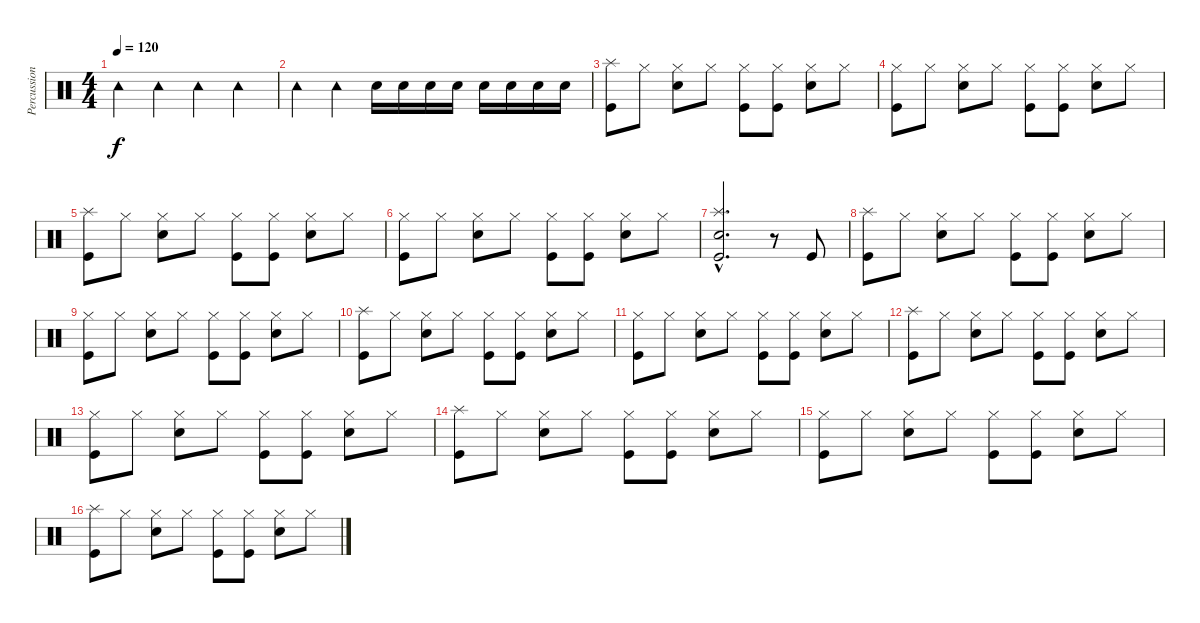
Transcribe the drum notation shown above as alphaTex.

\track ("Percussion" "Percussion") {instrument percussion}
\staff {score}
\articulation defaults
\ts (4 4)
\tempo 120
\clef neutral
\ks c "Tambourine (hit)".4{dy f volume 5} "Tambourine (hit)".4 "Tambourine (hit)".4 "Tambourine (hit)".4
|
"Tambourine (hit)".4 "Tambourine (hit)".4 "Snare (hit) 2".16{volume 16} "Snare (hit) 2".16 "Snare (hit) 2".16 "Snare (hit) 2".16 "Snare (hit) 2".16 "Snare (hit) 2".16 "Snare (hit) 2".16 "Snare (hit) 2".16 |
("Splash (hit)" "Kick (hit)").8 "Hi-Hat (closed)".8 ("Hi-Hat (closed)" "Snare (hit) 2").8 "Hi-Hat (closed)".8 ("Hi-Hat (closed)" "Kick (hit)").8 ("Hi-Hat (closed)" "Kick (hit)").8 ("Hi-Hat (closed)" "Snare (hit) 2").8 "Hi-Hat (closed)".8 |
("Hi-Hat (closed)" "Kick (hit)").8 "Hi-Hat (closed)".8 ("Hi-Hat (closed)" "Snare (hit) 2").8 "Hi-Hat (closed)".8 ("Hi-Hat (closed)" "Kick (hit)").8 ("Hi-Hat (closed)" "Kick (hit)").8 ("Hi-Hat (closed)" "Snare (hit) 2").8 "Hi-Hat (closed)".8 |
("Splash (hit)" "Kick (hit)").8 "Hi-Hat (closed)".8 ("Hi-Hat (closed)" "Snare (hit) 2").8 "Hi-Hat (closed)".8 ("Hi-Hat (closed)" "Kick (hit)").8 ("Hi-Hat (closed)" "Kick (hit)").8 ("Hi-Hat (closed)" "Snare (hit) 2").8 "Hi-Hat (closed)".8 |
("Hi-Hat (closed)" "Kick (hit)").8 "Hi-Hat (closed)".8 ("Hi-Hat (closed)" "Snare (hit) 2").8 "Hi-Hat (closed)".8 ("Hi-Hat (closed)" "Kick (hit)").8 ("Hi-Hat (closed)" "Kick (hit)").8 ("Hi-Hat (closed)" "Snare (hit) 2").8 "Hi-Hat (closed)".8 |
("Splash (hit)"{hac} "Kick (hit)"{hac} "Snare (hit) 2"{hac}).2{d} r.8 "Kick (hit)".8 |
("Splash (hit)" "Kick (hit)").8 "Hi-Hat (closed)".8 ("Hi-Hat (closed)" "Snare (hit) 2").8 "Hi-Hat (closed)".8 ("Hi-Hat (closed)" "Kick (hit)").8 ("Hi-Hat (closed)" "Kick (hit)").8 ("Hi-Hat (closed)" "Snare (hit) 2").8 "Hi-Hat (closed)".8 |
("Hi-Hat (closed)" "Kick (hit)").8 "Hi-Hat (closed)".8 ("Hi-Hat (closed)" "Snare (hit) 2").8 "Hi-Hat (closed)".8 ("Hi-Hat (closed)" "Kick (hit)").8 ("Hi-Hat (closed)" "Kick (hit)").8 ("Hi-Hat (closed)" "Snare (hit) 2").8 "Hi-Hat (closed)".8 |
("Splash (hit)" "Kick (hit)").8 "Hi-Hat (closed)".8 ("Hi-Hat (closed)" "Snare (hit) 2").8 "Hi-Hat (closed)".8 ("Hi-Hat (closed)" "Kick (hit)").8 ("Hi-Hat (closed)" "Kick (hit)").8 ("Hi-Hat (closed)" "Snare (hit) 2").8 "Hi-Hat (closed)".8 |
("Hi-Hat (closed)" "Kick (hit)").8 "Hi-Hat (closed)".8 ("Hi-Hat (closed)" "Snare (hit) 2").8 "Hi-Hat (closed)".8 ("Hi-Hat (closed)" "Kick (hit)").8 ("Hi-Hat (closed)" "Kick (hit)").8 ("Hi-Hat (closed)" "Snare (hit) 2").8 "Hi-Hat (closed)".8 |
("Splash (hit)" "Kick (hit)").8 "Hi-Hat (closed)".8 ("Hi-Hat (closed)" "Snare (hit) 2").8 "Hi-Hat (closed)".8 ("Hi-Hat (closed)" "Kick (hit)").8 ("Hi-Hat (closed)" "Kick (hit)").8 ("Hi-Hat (closed)" "Snare (hit) 2").8 "Hi-Hat (closed)".8 |
("Hi-Hat (closed)" "Kick (hit)").8 "Hi-Hat (closed)".8 ("Hi-Hat (closed)" "Snare (hit) 2").8 "Hi-Hat (closed)".8 ("Hi-Hat (closed)" "Kick (hit)").8 ("Hi-Hat (closed)" "Kick (hit)").8 ("Hi-Hat (closed)" "Snare (hit) 2").8 "Hi-Hat (closed)".8 |
("Splash (hit)" "Kick (hit)").8 "Hi-Hat (closed)".8 ("Hi-Hat (closed)" "Snare (hit) 2").8 "Hi-Hat (closed)".8 ("Hi-Hat (closed)" "Kick (hit)").8 ("Hi-Hat (closed)" "Kick (hit)").8 ("Hi-Hat (closed)" "Snare (hit) 2").8 "Hi-Hat (closed)".8 |
("Hi-Hat (closed)" "Kick (hit)").8 "Hi-Hat (closed)".8 ("Hi-Hat (closed)" "Snare (hit) 2").8 "Hi-Hat (closed)".8 ("Hi-Hat (closed)" "Kick (hit)").8 ("Hi-Hat (closed)" "Kick (hit)").8 ("Hi-Hat (closed)" "Snare (hit) 2").8 "Hi-Hat (closed)".8 |
("Splash (hit)" "Kick (hit)").8 "Hi-Hat (closed)".8 ("Hi-Hat (closed)" "Snare (hit) 2").8 "Hi-Hat (closed)".8 ("Hi-Hat (closed)" "Kick (hit)").8 ("Hi-Hat (closed)" "Kick (hit)").8 ("Hi-Hat (closed)" "Snare (hit) 2").8 "Hi-Hat (closed)".8
